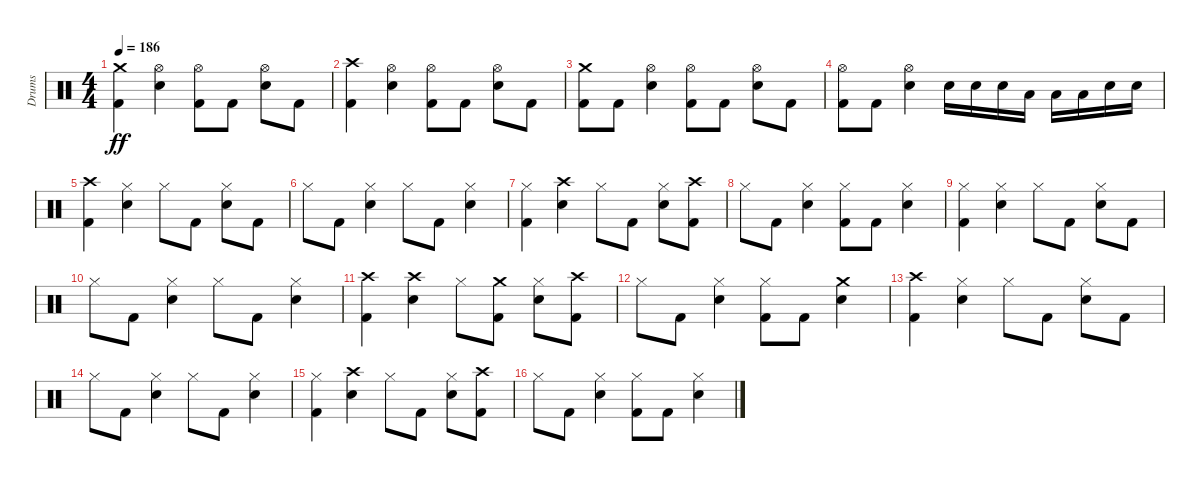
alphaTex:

\track ("Drums" "Drums") {instrument percussion}
\staff {score}
\articulation defaults
\ts (4 4)
\tempo 186
\clef neutral
\ks c
("Kick (hit) 2" "Crash medium (hit)").4{dy ff} ("Snare (hit) 2" "Hi-Hat (open)").4 ("Kick (hit) 2" "Hi-Hat (open)").8 "Kick (hit) 2".8 ("Snare (hit) 2" "Hi-Hat (open)").8 "Kick (hit) 2".8 |
("Kick (hit) 2" "Crash high (hit)").4 ("Snare (hit) 2" "Hi-Hat (open)").4 ("Kick (hit) 2" "Hi-Hat (open)").8 "Kick (hit) 2".8 ("Snare (hit) 2" "Hi-Hat (open)").8 "Kick (hit) 2".8 |
("Kick (hit) 2" "Crash medium (hit)").8 "Kick (hit) 2".8 ("Snare (hit) 2" "Hi-Hat (open)").4 ("Kick (hit) 2" "Hi-Hat (open)").8 "Kick (hit) 2".8 ("Snare (hit) 2" "Hi-Hat (open)").8 "Kick (hit) 2".8 |
("Kick (hit) 2" "Hi-Hat (open)").8 "Kick (hit) 2".8 ("Snare (hit) 2" "Hi-Hat (open)").4 "Snare (hit) 2".16 "Snare (hit) 2".16 "Snare (hit) 2".16 "Low Tom (hit)".16 "Low Tom (hit)".16 "Low Tom (hit)".16 "Snare (hit) 2".16 "Snare (hit) 2".16 |
("Kick (hit) 2" "Crash high (hit)").4 ("Snare (hit) 2" "Hi-Hat (closed)").4 "Hi-Hat (closed)".8 "Kick (hit) 2".8 ("Snare (hit) 2" "Hi-Hat (closed)").8 "Kick (hit) 2".8 |
"Hi-Hat (closed)".8 "Kick (hit) 2".8 ("Snare (hit) 2" "Hi-Hat (closed)").4 "Hi-Hat (closed)".8 "Kick (hit) 2".8 ("Snare (hit) 2" "Hi-Hat (closed)").4 |
("Kick (hit) 2" "Hi-Hat (closed)").4 ("Snare (hit) 2" "Crash high (hit)").4 "Hi-Hat (closed)".8 "Kick (hit) 2".8 ("Snare (hit) 2" "Hi-Hat (closed)").8 ("Kick (hit) 2" "Crash high (hit)").8 |
"Hi-Hat (closed)".8 "Kick (hit) 2".8 ("Snare (hit) 2" "Hi-Hat (closed)").4 ("Kick (hit) 2" "Hi-Hat (closed)").8 "Kick (hit) 2".8 ("Snare (hit) 2" "Hi-Hat (closed)").4 |
("Kick (hit) 2" "Hi-Hat (closed)").4 ("Snare (hit) 2" "Hi-Hat (closed)").4 "Hi-Hat (closed)".8 "Kick (hit) 2".8 ("Snare (hit) 2" "Hi-Hat (closed)").8 "Kick (hit) 2".8 |
"Hi-Hat (closed)".8 "Kick (hit) 2".8 ("Snare (hit) 2" "Hi-Hat (closed)").4 "Hi-Hat (closed)".8 "Kick (hit) 2".8 ("Snare (hit) 2" "Hi-Hat (closed)").4 |
("Kick (hit) 2" "Crash high (hit)").4 ("Snare (hit) 2" "Crash high (hit)").4 "Hi-Hat (closed)".8 ("Kick (hit) 2" "Crash medium (hit)").8 ("Snare (hit) 2" "Hi-Hat (closed)").8 ("Kick (hit) 2" "Crash high (hit)").8 |
"Hi-Hat (closed)".8 "Kick (hit) 2".8 ("Snare (hit) 2" "Hi-Hat (closed)").4 ("Kick (hit) 2" "Hi-Hat (closed)").8 "Kick (hit) 2".8 ("Snare (hit) 2" "Crash medium (hit)").4 |
("Kick (hit) 2" "Crash high (hit)").4 ("Snare (hit) 2" "Hi-Hat (closed)").4 "Hi-Hat (closed)".8 "Kick (hit) 2".8 ("Snare (hit) 2" "Hi-Hat (closed)").8 "Kick (hit) 2".8 |
"Hi-Hat (closed)".8 "Kick (hit) 2".8 ("Snare (hit) 2" "Hi-Hat (closed)").4 "Hi-Hat (closed)".8 "Kick (hit) 2".8 ("Snare (hit) 2" "Hi-Hat (closed)").4 |
("Kick (hit) 2" "Hi-Hat (closed)").4 ("Snare (hit) 2" "Crash high (hit)").4 "Hi-Hat (closed)".8 "Kick (hit) 2".8 ("Snare (hit) 2" "Hi-Hat (closed)").8 ("Kick (hit) 2" "Crash high (hit)").8 |
"Hi-Hat (closed)".8 "Kick (hit) 2".8 ("Snare (hit) 2" "Hi-Hat (closed)").4 ("Kick (hit) 2" "Hi-Hat (closed)").8 "Kick (hit) 2".8 ("Snare (hit) 2" "Hi-Hat (closed)").4
